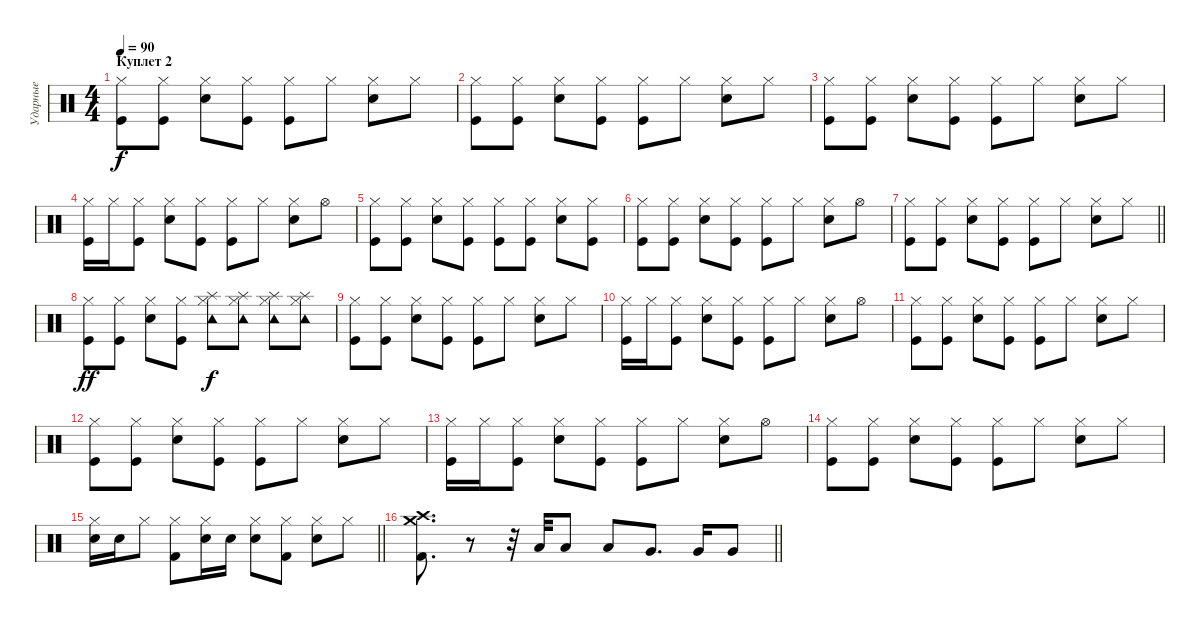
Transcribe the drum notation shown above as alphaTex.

\track ("Ударные" "Ударные") {instrument percussion}
\staff {score}
\articulation defaults
\ts (4 4)
\section ("" "Куплет 2")
\tempo 90
\clef neutral
\ks c
("Hi-Hat (closed)" "Kick (hit)").8{dy f} ("Hi-Hat (closed)" "Kick (hit)").8 ("Hi-Hat (closed)" "Snare (hit) 2").8 ("Hi-Hat (closed)" "Kick (hit)").8 ("Hi-Hat (closed)" "Kick (hit)").8 "Hi-Hat (closed)".8 ("Hi-Hat (closed)" "Snare (hit) 2").8 "Hi-Hat (closed)".8 |
("Hi-Hat (closed)" "Kick (hit)").8 ("Hi-Hat (closed)" "Kick (hit)").8 ("Hi-Hat (closed)" "Snare (hit) 2").8 ("Hi-Hat (closed)" "Kick (hit)").8 ("Hi-Hat (closed)" "Kick (hit)").8 "Hi-Hat (closed)".8 ("Hi-Hat (closed)" "Snare (hit) 2").8 "Hi-Hat (closed)".8 |
("Hi-Hat (closed)" "Kick (hit)").8 ("Hi-Hat (closed)" "Kick (hit)").8 ("Hi-Hat (closed)" "Snare (hit) 2").8 ("Hi-Hat (closed)" "Kick (hit)").8 ("Hi-Hat (closed)" "Kick (hit)").8 "Hi-Hat (closed)".8 ("Hi-Hat (closed)" "Snare (hit) 2").8 "Hi-Hat (closed)".8 |
("Hi-Hat (closed)" "Kick (hit)").16 "Hi-Hat (closed)".16 ("Hi-Hat (closed)" "Kick (hit)").8 ("Hi-Hat (closed)" "Snare (hit) 2").8 ("Hi-Hat (closed)" "Kick (hit)").8 ("Hi-Hat (closed)" "Kick (hit)").8 "Hi-Hat (closed)".8 ("Hi-Hat (closed)" "Snare (hit) 2").8 "Hi-Hat (open)".8 |
("Hi-Hat (closed)" "Kick (hit)").8 ("Hi-Hat (closed)" "Kick (hit)").8 ("Hi-Hat (closed)" "Snare (hit) 2").8 ("Hi-Hat (closed)" "Kick (hit)").8 ("Hi-Hat (closed)" "Kick (hit)").8 ("Hi-Hat (closed)" "Kick (hit)").8 ("Hi-Hat (closed)" "Snare (hit) 2").8 ("Hi-Hat (closed)" "Kick (hit)").8 |
("Hi-Hat (closed)" "Kick (hit)").8 ("Hi-Hat (closed)" "Kick (hit)").8 ("Hi-Hat (closed)" "Snare (hit) 2").8 ("Hi-Hat (closed)" "Kick (hit)").8 ("Hi-Hat (closed)" "Kick (hit)").8 "Hi-Hat (closed)".8 ("Hi-Hat (closed)" "Snare (hit) 2").8 "Hi-Hat (open)".8 |
\barLineRight lightlight
("Hi-Hat (closed)" "Kick (hit)").8 ("Hi-Hat (closed)" "Kick (hit)").8 ("Hi-Hat (closed)" "Snare (hit) 2").8 ("Hi-Hat (closed)" "Kick (hit)").8 ("Hi-Hat (closed)" "Kick (hit)").8 "Hi-Hat (closed)".8 ("Hi-Hat (closed)" "Snare (hit) 2").8 "Hi-Hat (closed)".8 |
("Hi-Hat (closed)" "Kick (hit)").8{dy ff} ("Hi-Hat (closed)" "Kick (hit)").8 ("Hi-Hat (closed)" "Snare (hit) 2").8 ("Hi-Hat (closed)" "Kick (hit)").8 ("Splash (hit)" "Tambourine (hit)" "Hi-Hat (closed)").8{dy f} ("Splash (hit)" "Hi-Hat (closed)" "Tambourine (hit)").8 ("Splash (hit)" "Hi-Hat (closed)" "Tambourine (hit)").8 ("Splash (hit)" "Hi-Hat (closed)" "Tambourine (hit)").8 |
("Hi-Hat (closed)" "Kick (hit)").8 ("Hi-Hat (closed)" "Kick (hit)").8 ("Hi-Hat (closed)" "Snare (hit) 2").8 ("Hi-Hat (closed)" "Kick (hit)").8 ("Hi-Hat (closed)" "Kick (hit)").8 "Hi-Hat (closed)".8 ("Hi-Hat (closed)" "Snare (hit) 2").8 "Hi-Hat (closed)".8 |
("Hi-Hat (closed)" "Kick (hit)").16 "Hi-Hat (closed)".16 ("Hi-Hat (closed)" "Kick (hit)").8 ("Hi-Hat (closed)" "Snare (hit) 2").8 ("Hi-Hat (closed)" "Kick (hit)").8 ("Hi-Hat (closed)" "Kick (hit)").8 "Hi-Hat (closed)".8 ("Hi-Hat (closed)" "Snare (hit) 2").8 "Hi-Hat (open)".8 |
("Hi-Hat (closed)" "Kick (hit)").8 ("Hi-Hat (closed)" "Kick (hit)").8 ("Hi-Hat (closed)" "Snare (hit) 2").8 ("Hi-Hat (closed)" "Kick (hit)").8 ("Hi-Hat (closed)" "Kick (hit)").8 "Hi-Hat (closed)".8 ("Hi-Hat (closed)" "Snare (hit) 2").8 "Hi-Hat (closed)".8 |
("Hi-Hat (closed)" "Kick (hit)").8 ("Hi-Hat (closed)" "Kick (hit)").8 ("Hi-Hat (closed)" "Snare (hit) 2").8 ("Hi-Hat (closed)" "Kick (hit)").8 ("Hi-Hat (closed)" "Kick (hit)").8 "Hi-Hat (closed)".8 ("Hi-Hat (closed)" "Snare (hit) 2").8 "Hi-Hat (closed)".8 |
("Hi-Hat (closed)" "Kick (hit)").16 "Hi-Hat (closed)".16 ("Hi-Hat (closed)" "Kick (hit)").8 ("Hi-Hat (closed)" "Snare (hit) 2").8 ("Hi-Hat (closed)" "Kick (hit)").8 ("Hi-Hat (closed)" "Kick (hit)").8 "Hi-Hat (closed)".8 ("Hi-Hat (closed)" "Snare (hit) 2").8 "Hi-Hat (open)".8 |
("Hi-Hat (closed)" "Kick (hit)").8 ("Hi-Hat (closed)" "Kick (hit)").8 ("Hi-Hat (closed)" "Snare (hit) 2").8 ("Hi-Hat (closed)" "Kick (hit)").8 ("Hi-Hat (closed)" "Kick (hit)").8 "Hi-Hat (closed)".8 ("Hi-Hat (closed)" "Snare (hit) 2").8 "Hi-Hat (closed)".8 |
\barLineRight lightlight
("Snare (hit) 2" "Hi-Hat (closed)").16 "Snare (hit) 2".16 "Hi-Hat (closed)".8 ("Kick (hit) 2" "Hi-Hat (closed)").8 ("Snare (hit) 2" "Hi-Hat (closed)").16 "Snare (hit) 2".16 ("Snare (hit) 2" "Hi-Hat (closed)").8 ("Kick (hit) 2" "Hi-Hat (closed)").8 ("Snare (hit) 2" "Hi-Hat (closed)").8 "Hi-Hat (closed)".8 |
\barLineRight lightlight
("Kick (hit) 2" "Crash medium (hit)" "Crash high (hit)").8{d} r.8 r.32 "Low Tom (hit)".32 "Low Tom (hit)".8 "Low Tom (hit)".8 "Very Low Tom (hit)".8{d} "Very Low Tom (hit)".16 "Very Low Tom (hit)".8
